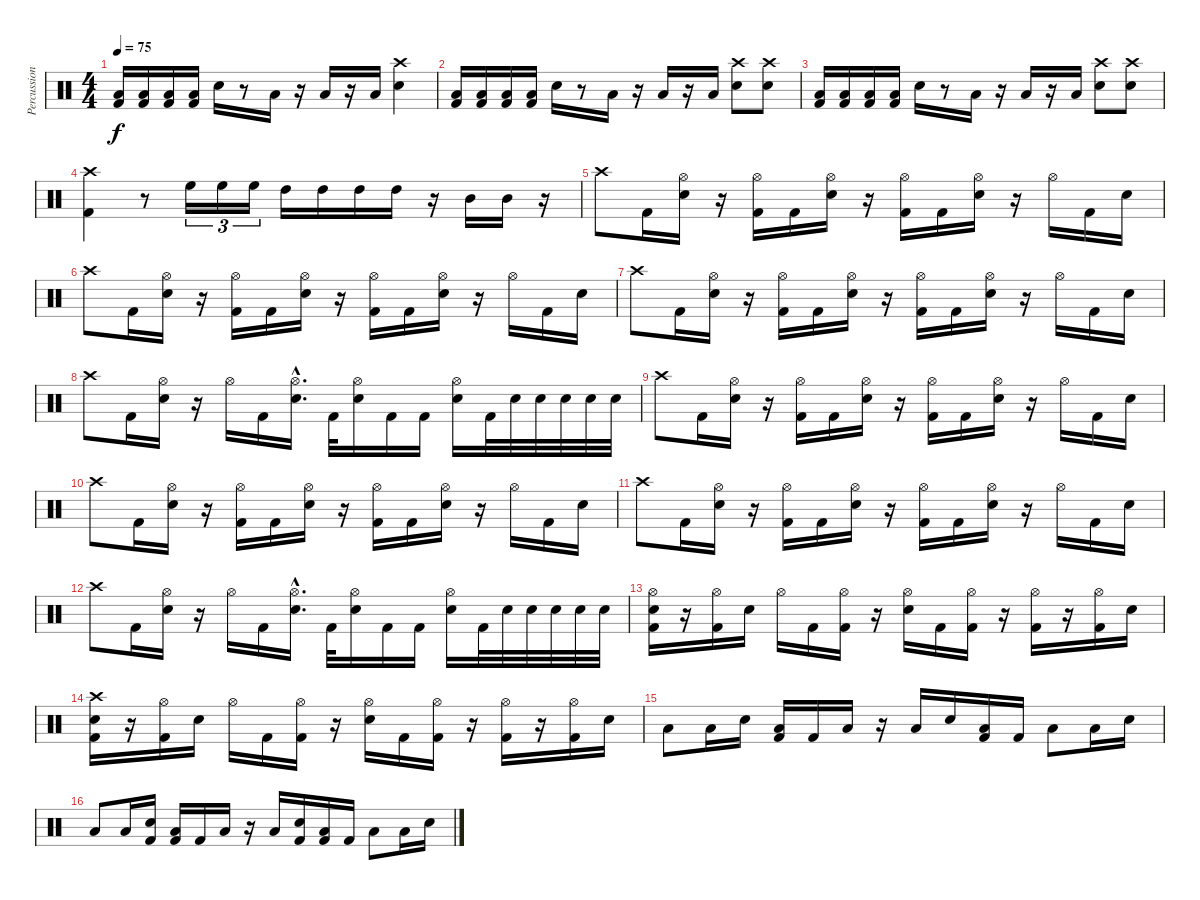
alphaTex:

\track ("Percussion" "Percussion") {instrument percussion}
\staff {score}
\articulation defaults
\ts (4 4)
\tempo 75
\clef neutral
\ks c
("Kick (hit) 2" "Low Tom (hit)").16{dy f} ("Kick (hit) 2" "Low Tom (hit)").16 ("Kick (hit) 2" "Low Tom (hit)").16 ("Kick (hit) 2" "Low Tom (hit)").16 "Snare (hit) 2".16 r.8 "Low Tom (hit)".16 r.16 "Low Tom (hit)".16 r.16 "Low Tom (hit)".16 ("Crash high (hit)" "Snare (hit) 2").4 |
("Kick (hit) 2" "Low Tom (hit)").16 ("Kick (hit) 2" "Low Tom (hit)").16 ("Kick (hit) 2" "Low Tom (hit)").16 ("Kick (hit) 2" "Low Tom (hit)").16 "Snare (hit) 2".16 r.8 "Low Tom (hit)".16 r.16 "Low Tom (hit)".16 r.16 "Low Tom (hit)".16 ("Crash high (hit)" "Snare (hit) 2").8 ("Crash high (hit)" "Snare (hit) 2").8 |
("Kick (hit) 2" "Low Tom (hit)").16 ("Kick (hit) 2" "Low Tom (hit)").16 ("Kick (hit) 2" "Low Tom (hit)").16 ("Kick (hit) 2" "Low Tom (hit)").16 "Snare (hit) 2".16 r.8 "Low Tom (hit)".16 r.16 "Low Tom (hit)".16 r.16 "Low Tom (hit)".16 ("Crash high (hit)" "Snare (hit) 2").8 ("Crash high (hit)" "Snare (hit) 2").8 |
("Crash high (hit)" "Kick (hit) 2").4 r.8 "High Floor Tom (hit)".16{tu (3 2)} "High Floor Tom (hit)".16{tu (3 2)} "High Floor Tom (hit)".16{tu (3 2)} "High Tom (hit)".16 "High Tom (hit)".16 "High Tom (hit)".16 "High Tom (hit)".16 r.16 "Mid Tom (hit)".16 "Mid Tom (hit)".16 r.16 |
"Crash high (hit)".8 "Kick (hit) 2".16 ("Hi-Hat (open)" "Snare (hit) 2").16 r.16 ("Hi-Hat (open)" "Kick (hit) 2").16 "Kick (hit) 2".16 ("Hi-Hat (open)" "Snare (hit) 2").16 r.16 ("Hi-Hat (open)" "Kick (hit) 2").16 "Kick (hit) 2".16 ("Hi-Hat (open)" "Snare (hit) 2").16 r.16 "Hi-Hat (open)".16 "Kick (hit) 2".16 "Snare (hit) 2".16 |
"Crash high (hit)".8 "Kick (hit) 2".16 ("Hi-Hat (open)" "Snare (hit) 2").16 r.16 ("Hi-Hat (open)" "Kick (hit) 2").16 "Kick (hit) 2".16 ("Hi-Hat (open)" "Snare (hit) 2").16 r.16 ("Hi-Hat (open)" "Kick (hit) 2").16 "Kick (hit) 2".16 ("Hi-Hat (open)" "Snare (hit) 2").16 r.16 "Hi-Hat (open)".16 "Kick (hit) 2".16 "Snare (hit) 2".16 |
"Crash high (hit)".8 "Kick (hit) 2".16 ("Hi-Hat (open)" "Snare (hit) 2").16 r.16 ("Hi-Hat (open)" "Kick (hit) 2").16 "Kick (hit) 2".16 ("Hi-Hat (open)" "Snare (hit) 2").16 r.16 ("Hi-Hat (open)" "Kick (hit) 2").16 "Kick (hit) 2".16 ("Hi-Hat (open)" "Snare (hit) 2").16 r.16 "Hi-Hat (open)".16 "Kick (hit) 2".16 "Snare (hit) 2".16 |
"Crash high (hit)".8 "Kick (hit) 2".16 ("Hi-Hat (open)" "Snare (hit) 2").16 r.16 "Hi-Hat (open)".16 "Kick (hit) 2".16 ("Hi-Hat (open)"{hac} "Snare (hit) 2"{hac}).16{d} "Kick (hit) 2".32 ("Hi-Hat (open)" "Snare (hit) 2").16 "Kick (hit) 2".16 "Kick (hit) 2".16 ("Hi-Hat (open)" "Snare (hit) 2").16 "Kick (hit) 2".32 "Snare (hit) 2".32 "Snare (hit) 2".32 "Snare (hit) 2".32 "Snare (hit) 2".32 "Snare (hit) 2".32 |
"Crash high (hit)".8 "Kick (hit) 2".16 ("Hi-Hat (open)" "Snare (hit) 2").16 r.16 ("Hi-Hat (open)" "Kick (hit) 2").16 "Kick (hit) 2".16 ("Hi-Hat (open)" "Snare (hit) 2").16 r.16 ("Hi-Hat (open)" "Kick (hit) 2").16 "Kick (hit) 2".16 ("Hi-Hat (open)" "Snare (hit) 2").16 r.16 "Hi-Hat (open)".16 "Kick (hit) 2".16 "Snare (hit) 2".16 |
"Crash high (hit)".8 "Kick (hit) 2".16 ("Hi-Hat (open)" "Snare (hit) 2").16 r.16 ("Hi-Hat (open)" "Kick (hit) 2").16 "Kick (hit) 2".16 ("Hi-Hat (open)" "Snare (hit) 2").16 r.16 ("Hi-Hat (open)" "Kick (hit) 2").16 "Kick (hit) 2".16 ("Hi-Hat (open)" "Snare (hit) 2").16 r.16 "Hi-Hat (open)".16 "Kick (hit) 2".16 "Snare (hit) 2".16 |
"Crash high (hit)".8 "Kick (hit) 2".16 ("Hi-Hat (open)" "Snare (hit) 2").16 r.16 ("Hi-Hat (open)" "Kick (hit) 2").16 "Kick (hit) 2".16 ("Hi-Hat (open)" "Snare (hit) 2").16 r.16 ("Hi-Hat (open)" "Kick (hit) 2").16 "Kick (hit) 2".16 ("Hi-Hat (open)" "Snare (hit) 2").16 r.16 "Hi-Hat (open)".16 "Kick (hit) 2".16 "Snare (hit) 2".16 |
"Crash high (hit)".8 "Kick (hit) 2".16 ("Hi-Hat (open)" "Snare (hit) 2").16 r.16 "Hi-Hat (open)".16 "Kick (hit) 2".16 ("Hi-Hat (open)"{hac} "Snare (hit) 2"{hac}).16{d} "Kick (hit) 2".32 ("Hi-Hat (open)" "Snare (hit) 2").16 "Kick (hit) 2".16 "Kick (hit) 2".16 ("Hi-Hat (open)" "Snare (hit) 2").16 "Kick (hit) 2".32 "Snare (hit) 2".32 "Snare (hit) 2".32 "Snare (hit) 2".32 "Snare (hit) 2".32 "Snare (hit) 2".32 |
("Hi-Hat (open)" "Kick (hit) 2" "Snare (hit) 2").16 r.16 ("Hi-Hat (open)" "Kick (hit) 2").16 "Snare (hit) 2".16 "Hi-Hat (open)".16 "Kick (hit) 2".16 ("Hi-Hat (open)" "Kick (hit) 2").16 r.16 ("Hi-Hat (open)" "Snare (hit) 2").16 "Kick (hit) 2".16 ("Hi-Hat (open)" "Kick (hit) 2").16 r.16 ("Hi-Hat (open)" "Kick (hit) 2").16 r.16 ("Hi-Hat (open)" "Kick (hit) 2").16 "Snare (hit) 2".16 |
("Crash high (hit)" "Kick (hit) 2" "Snare (hit) 2").16 r.16 ("Hi-Hat (open)" "Kick (hit) 2").16 "Snare (hit) 2".16 "Hi-Hat (open)".16 "Kick (hit) 2".16 ("Hi-Hat (open)" "Kick (hit) 2").16 r.16 ("Hi-Hat (open)" "Snare (hit) 2").16 "Kick (hit) 2".16 ("Hi-Hat (open)" "Kick (hit) 2").16 r.16 ("Hi-Hat (open)" "Kick (hit) 2").16 r.16 ("Hi-Hat (open)" "Kick (hit) 2").16 "Snare (hit) 2".16 |
"Low Tom (hit)".8 "Low Tom (hit)".16 "Snare (hit) 2".16 ("Kick (hit) 2" "Low Tom (hit)").16 "Kick (hit) 2".16 "Low Tom (hit)".16 r.16 "Low Tom (hit)".16 "Snare (hit) 2".16 ("Kick (hit) 2" "Low Tom (hit)").16 "Kick (hit) 2".16 "Low Tom (hit)".8 "Low Tom (hit)".16 "Snare (hit) 2".16 |
"Low Tom (hit)".8 "Low Tom (hit)".16 ("Kick (hit) 2" "Snare (hit) 2").16 ("Kick (hit) 2" "Low Tom (hit)").16 "Kick (hit) 2".16 "Low Tom (hit)".16 r.16 "Low Tom (hit)".16 ("Kick (hit) 2" "Snare (hit) 2").16 ("Kick (hit) 2" "Low Tom (hit)").16 "Kick (hit) 2".16 "Low Tom (hit)".8 "Low Tom (hit)".16 "Snare (hit) 2".16
